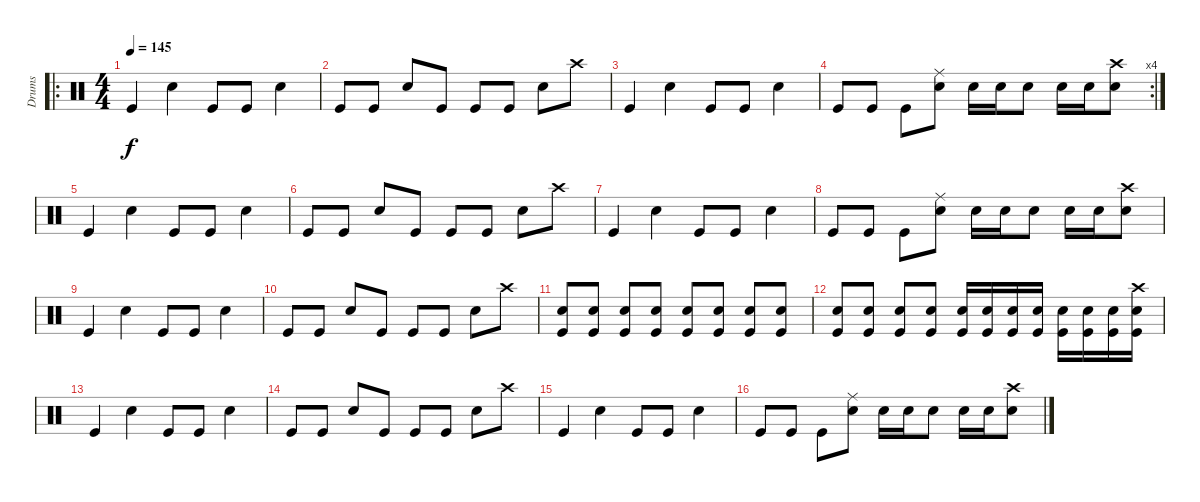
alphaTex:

\track ("Drums" "Drums") {instrument percussion}
\staff
\articulation defaults
\ro
\ts (4 4)
\tempo 145
\clef neutral
\ks c "Kick (hit)".4{dy f} "Electric Snare (hit)".4 "Kick (hit)".8 "Kick (hit)".8 "Electric Snare (hit)".4
|
"Kick (hit)".8 "Kick (hit)".8 "Electric Snare (hit)".8 "Kick (hit)".8 "Kick (hit)".8 "Kick (hit)".8 "Electric Snare (hit)".8 "Crash high (hit)".8 |
"Kick (hit)".4 "Electric Snare (hit)".4 "Kick (hit)".8 "Kick (hit)".8 "Electric Snare (hit)".4 |
\rc 4 "Kick (hit)".8 "Kick (hit)".8 "Kick (hit)".8
("Electric Snare (hit)" "Ride (middle)").8 "Electric Snare (hit)".16 "Electric Snare (hit)".16 "Electric Snare (hit)".8 "Electric Snare (hit)".16 "Electric Snare (hit)".16 ("Electric Snare (hit)" "Crash high (hit)").8 |
"Kick (hit)".4 "Electric Snare (hit)".4 "Kick (hit)".8 "Kick (hit)".8 "Electric Snare (hit)".4 |
"Kick (hit)".8 "Kick (hit)".8 "Electric Snare (hit)".8 "Kick (hit)".8 "Kick (hit)".8 "Kick (hit)".8 "Electric Snare (hit)".8 "Crash high (hit)".8 |
"Kick (hit)".4 "Electric Snare (hit)".4 "Kick (hit)".8 "Kick (hit)".8 "Electric Snare (hit)".4 |
"Kick (hit)".8 "Kick (hit)".8 "Kick (hit)".8 ("Electric Snare (hit)" "Ride (middle)").8 "Electric Snare (hit)".16 "Electric Snare (hit)".16 "Electric Snare (hit)".8 "Electric Snare (hit)".16 "Electric Snare (hit)".16 ("Electric Snare (hit)" "Crash high (hit)").8 |
"Kick (hit)".4 "Electric Snare (hit)".4 "Kick (hit)".8 "Kick (hit)".8 "Electric Snare (hit)".4 |
"Kick (hit)".8 "Kick (hit)".8 "Electric Snare (hit)".8 "Kick (hit)".8 "Kick (hit)".8 "Kick (hit)".8 "Electric Snare (hit)".8 "Crash high (hit)".8 |
("Kick (hit)" "Electric Snare (hit)").8 ("Kick (hit)" "Electric Snare (hit)").8 ("Kick (hit)" "Electric Snare (hit)").8 ("Kick (hit)" "Electric Snare (hit)").8 ("Kick (hit)" "Electric Snare (hit)").8 ("Kick (hit)" "Electric Snare (hit)").8 ("Kick (hit)" "Electric Snare (hit)").8 ("Kick (hit)" "Electric Snare (hit)").8 |
("Kick (hit)" "Electric Snare (hit)").8 ("Kick (hit)" "Electric Snare (hit)").8 ("Kick (hit)" "Electric Snare (hit)").8 ("Kick (hit)" "Electric Snare (hit)").8 ("Kick (hit)" "Electric Snare (hit)").16 ("Kick (hit)" "Electric Snare (hit)").16 ("Kick (hit)" "Electric Snare (hit)").16 ("Kick (hit)" "Electric Snare (hit)").16 ("Kick (hit)" "Electric Snare (hit)").16 ("Kick (hit)" "Electric Snare (hit)").16 ("Kick (hit)" "Electric Snare (hit)").16 ("Kick (hit)" "Electric Snare (hit)" "Crash high (hit)").16 |
"Kick (hit)".4 "Electric Snare (hit)".4 "Kick (hit)".8 "Kick (hit)".8 "Electric Snare (hit)".4 |
"Kick (hit)".8 "Kick (hit)".8 "Electric Snare (hit)".8 "Kick (hit)".8 "Kick (hit)".8 "Kick (hit)".8 "Electric Snare (hit)".8 "Crash high (hit)".8 |
"Kick (hit)".4 "Electric Snare (hit)".4 "Kick (hit)".8 "Kick (hit)".8 "Electric Snare (hit)".4 |
"Kick (hit)".8 "Kick (hit)".8 "Kick (hit)".8 ("Electric Snare (hit)" "Ride (middle)").8 "Electric Snare (hit)".16 "Electric Snare (hit)".16 "Electric Snare (hit)".8 "Electric Snare (hit)".16 "Electric Snare (hit)".16 ("Electric Snare (hit)" "Crash high (hit)").8
